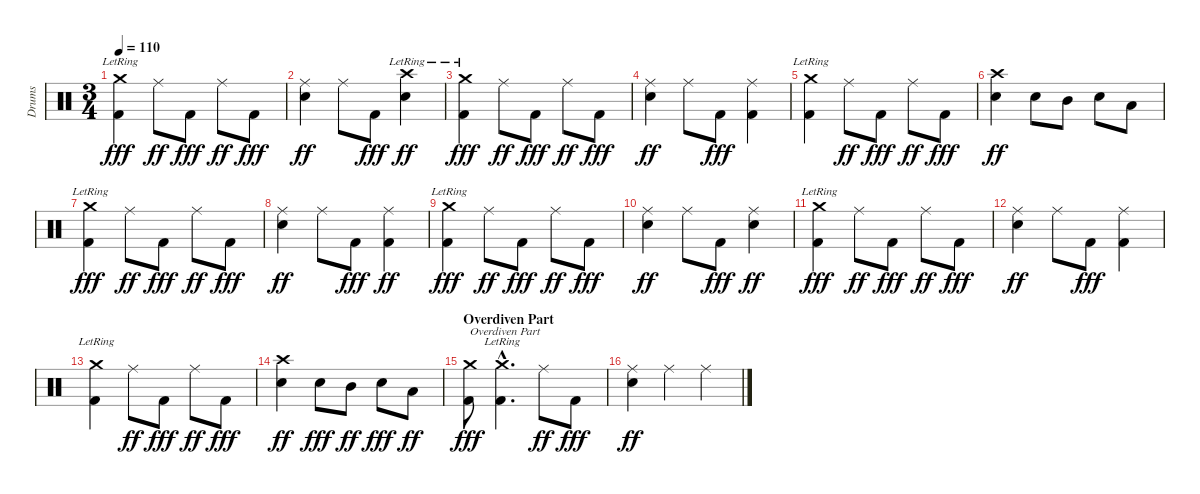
\track ("Drums" "Drums") {instrument percussion}
\staff {score}
\articulation defaults
\ts (3 4)
\tempo 110
\clef neutral
\ks c
("Crash medium (hit)"{lr} "Kick (hit) 2").4{dy fff} "Ride (middle)".8{dy ff} "Kick (hit) 2".8{dy fff} "Ride (middle)".8{dy ff} "Kick (hit) 2".8{dy fff} |
("Ride (middle)" "Snare (hit) 2").4{dy ff} "Ride (middle)".8 "Kick (hit) 2".8{dy fff} ("Crash high (hit)"{lr} "Snare (hit) 2").4{dy ff} |
("Crash medium (hit)"{lr} "Kick (hit) 2").4{dy fff} "Ride (middle)".8{dy ff} "Kick (hit) 2".8{dy fff} "Ride (middle)".8{dy ff} "Kick (hit) 2".8{dy fff} |
("Ride (middle)" "Snare (hit) 2").4{dy ff} "Ride (middle)".8 "Kick (hit) 2".8{dy fff} ("Ride (middle)" "Kick (hit) 2").4 |
("Crash medium (hit)"{lr} "Kick (hit) 2").4 "Ride (middle)".8{dy ff} "Kick (hit) 2".8{dy fff} "Ride (middle)".8{dy ff} "Kick (hit) 2".8{dy fff} |
("Crash high (hit)" "Snare (hit) 2").4{dy ff} "Snare (hit) 2".8 "Mid Tom (hit)".8 "Snare (hit) 2".8 "Low Tom (hit)".8 |
("Crash medium (hit)"{lr} "Kick (hit) 2").4{dy fff} "Ride (middle)".8{dy ff} "Kick (hit) 2".8{dy fff} "Ride (middle)".8{dy ff} "Kick (hit) 2".8{dy fff} |
("Ride (middle)" "Snare (hit) 2").4{dy ff} "Ride (middle)".8 "Kick (hit) 2".8{dy fff} ("Ride (middle)" "Kick (hit) 2").4{dy ff} |
("Crash medium (hit)"{lr} "Kick (hit) 2").4{dy fff} "Ride (middle)".8{dy ff} "Kick (hit) 2".8{dy fff} "Ride (middle)".8{dy ff} "Kick (hit) 2".8{dy fff} |
("Ride (middle)" "Snare (hit) 2").4{dy ff} "Ride (middle)".8 "Kick (hit) 2".8{dy fff} ("Ride (middle)" "Snare (hit) 2").4{dy ff} |
("Crash medium (hit)"{lr} "Kick (hit) 2").4{dy fff} "Ride (middle)".8{dy ff} "Kick (hit) 2".8{dy fff} "Ride (middle)".8{dy ff} "Kick (hit) 2".8{dy fff} |
("Ride (middle)" "Snare (hit) 2").4{dy ff} "Ride (middle)".8 "Kick (hit) 2".8{dy fff} ("Ride (middle)" "Kick (hit) 2").4 |
("Crash medium (hit)"{lr} "Kick (hit) 2").4 "Ride (middle)".8{dy ff} "Kick (hit) 2".8{dy fff} "Ride (middle)".8{dy ff} "Kick (hit) 2".8{dy fff} |
("Crash high (hit)" "Snare (hit) 2").4{dy ff} "Snare (hit) 2".8{dy fff} "Mid Tom (hit)".8{dy ff} "Snare (hit) 2".8{dy fff} "Low Tom (hit)".8{dy ff} |
\section ("" "Overdiven Part")
("Crash medium (hit)" "Kick (hit) 2").8{txt "Overdiven Part" dy fff} ("Crash medium (hit)"{hac lr} "Kick (hit) 2"{hac}).4{d} "Ride (middle)".8{dy ff} "Kick (hit) 2".8{dy fff} |
("Ride (middle)" "Snare (hit) 2").4{dy ff} "Ride (middle)".4 "Ride (middle)".4
